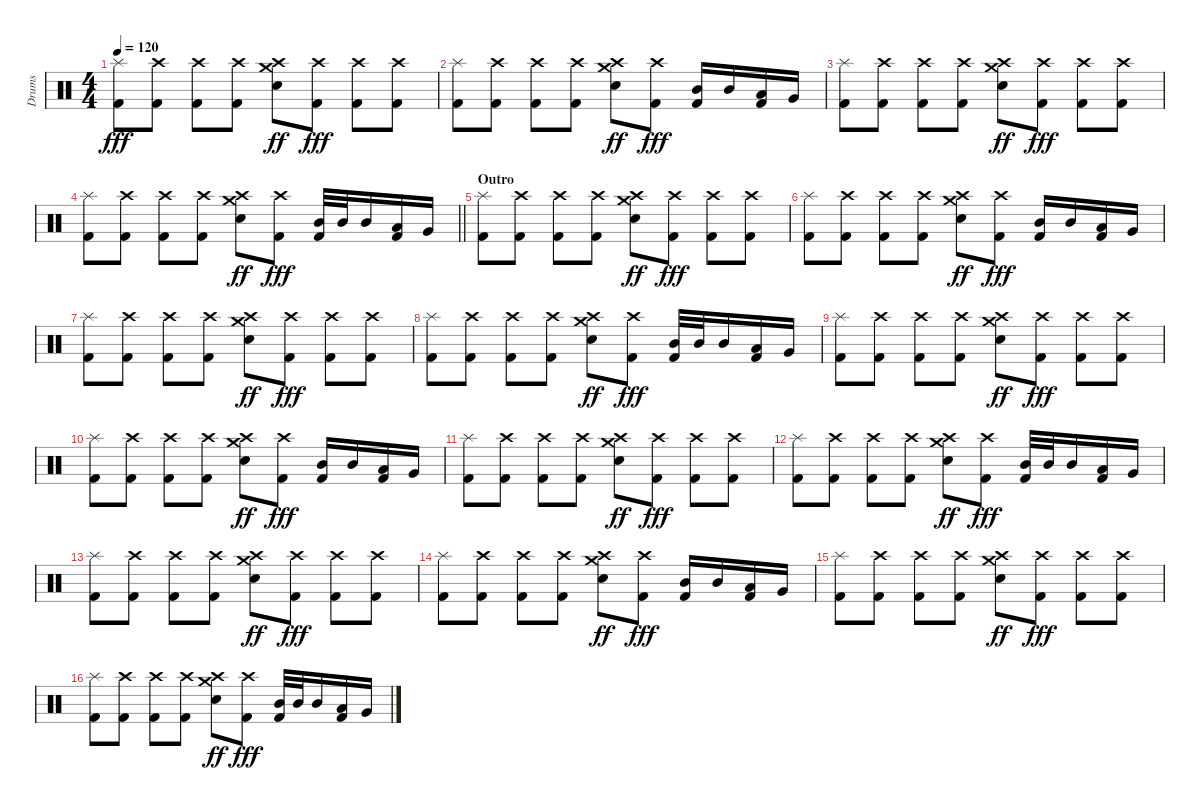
\track ("Drums" "Drums") {instrument percussion}
\staff {score}
\articulation defaults
\ts (4 4)
\tempo 120
\clef neutral
\ks c
("Kick (hit) 2" "Splash (hit)").8{dy fff} ("Kick (hit) 2" "Crash high (hit)").8 ("Kick (hit) 2" "Crash high (hit)").8 ("Kick (hit) 2" "Crash high (hit)").8 ("Snare (hit) 2" "Crash high (hit)" "Crash medium (hit)").8{dy ff} ("Kick (hit) 2" "Crash high (hit)").8{dy fff} ("Kick (hit) 2" "Crash high (hit)").8 ("Kick (hit) 2" "Crash high (hit)").8 |
("Kick (hit) 2" "Splash (hit)").8 ("Kick (hit) 2" "Crash high (hit)").8 ("Kick (hit) 2" "Crash high (hit)").8 ("Kick (hit) 2" "Crash high (hit)").8 ("Snare (hit) 2" "Crash high (hit)" "Crash medium (hit)").8{dy ff} ("Kick (hit) 2" "Crash high (hit)").8{dy fff} ("Kick (hit) 2" "Mid Tom (hit)").16 "Mid Tom (hit)".16 ("Kick (hit) 2" "Low Tom (hit)").16 "Very Low Tom (hit)".16 |
("Kick (hit) 2" "Splash (hit)").8 ("Kick (hit) 2" "Crash high (hit)").8 ("Kick (hit) 2" "Crash high (hit)").8 ("Kick (hit) 2" "Crash high (hit)").8 ("Snare (hit) 2" "Crash high (hit)" "Crash medium (hit)").8{dy ff} ("Kick (hit) 2" "Crash high (hit)").8{dy fff} ("Kick (hit) 2" "Crash high (hit)").8 ("Kick (hit) 2" "Crash high (hit)").8 |
\barLineRight lightlight
("Kick (hit) 2" "Splash (hit)").8 ("Kick (hit) 2" "Crash high (hit)").8 ("Kick (hit) 2" "Crash high (hit)").8 ("Kick (hit) 2" "Crash high (hit)").8 ("Snare (hit) 2" "Crash high (hit)" "Crash medium (hit)").8{dy ff} ("Kick (hit) 2" "Crash high (hit)").8{dy fff} ("Kick (hit) 2" "Mid Tom (hit)").32 "Mid Tom (hit)".32 "Mid Tom (hit)".16 ("Kick (hit) 2" "Low Tom (hit)").16 "Very Low Tom (hit)".16 |
\section ("" "Outro")
("Kick (hit) 2" "Splash (hit)").8 ("Kick (hit) 2" "Crash high (hit)").8 ("Kick (hit) 2" "Crash high (hit)").8 ("Kick (hit) 2" "Crash high (hit)").8 ("Snare (hit) 2" "Crash high (hit)" "Crash medium (hit)").8{dy ff} ("Kick (hit) 2" "Crash high (hit)").8{dy fff} ("Kick (hit) 2" "Crash high (hit)").8 ("Kick (hit) 2" "Crash high (hit)").8 |
("Kick (hit) 2" "Splash (hit)").8 ("Kick (hit) 2" "Crash high (hit)").8 ("Kick (hit) 2" "Crash high (hit)").8 ("Kick (hit) 2" "Crash high (hit)").8 ("Snare (hit) 2" "Crash high (hit)" "Crash medium (hit)").8{dy ff} ("Kick (hit) 2" "Crash high (hit)").8{dy fff} ("Kick (hit) 2" "Mid Tom (hit)").16 "Mid Tom (hit)".16 ("Kick (hit) 2" "Low Tom (hit)").16 "Very Low Tom (hit)".16 |
("Kick (hit) 2" "Splash (hit)").8 ("Kick (hit) 2" "Crash high (hit)").8 ("Kick (hit) 2" "Crash high (hit)").8 ("Kick (hit) 2" "Crash high (hit)").8 ("Snare (hit) 2" "Crash high (hit)" "Crash medium (hit)").8{dy ff} ("Kick (hit) 2" "Crash high (hit)").8{dy fff} ("Kick (hit) 2" "Crash high (hit)").8 ("Kick (hit) 2" "Crash high (hit)").8 |
("Kick (hit) 2" "Splash (hit)").8 ("Kick (hit) 2" "Crash high (hit)").8 ("Kick (hit) 2" "Crash high (hit)").8 ("Kick (hit) 2" "Crash high (hit)").8 ("Snare (hit) 2" "Crash high (hit)" "Crash medium (hit)").8{dy ff} ("Kick (hit) 2" "Crash high (hit)").8{dy fff} ("Kick (hit) 2" "Mid Tom (hit)").32 "Mid Tom (hit)".32 "Mid Tom (hit)".16 ("Kick (hit) 2" "Low Tom (hit)").16 "Very Low Tom (hit)".16 |
("Kick (hit) 2" "Splash (hit)").8 ("Kick (hit) 2" "Crash high (hit)").8 ("Kick (hit) 2" "Crash high (hit)").8 ("Kick (hit) 2" "Crash high (hit)").8 ("Snare (hit) 2" "Crash high (hit)" "Crash medium (hit)").8{dy ff} ("Kick (hit) 2" "Crash high (hit)").8{dy fff} ("Kick (hit) 2" "Crash high (hit)").8 ("Kick (hit) 2" "Crash high (hit)").8 |
("Kick (hit) 2" "Splash (hit)").8 ("Kick (hit) 2" "Crash high (hit)").8 ("Kick (hit) 2" "Crash high (hit)").8 ("Kick (hit) 2" "Crash high (hit)").8 ("Snare (hit) 2" "Crash high (hit)" "Crash medium (hit)").8{dy ff} ("Kick (hit) 2" "Crash high (hit)").8{dy fff} ("Kick (hit) 2" "Mid Tom (hit)").16 "Mid Tom (hit)".16 ("Kick (hit) 2" "Low Tom (hit)").16 "Very Low Tom (hit)".16 |
("Kick (hit) 2" "Splash (hit)").8 ("Kick (hit) 2" "Crash high (hit)").8 ("Kick (hit) 2" "Crash high (hit)").8 ("Kick (hit) 2" "Crash high (hit)").8 ("Snare (hit) 2" "Crash high (hit)" "Crash medium (hit)").8{dy ff} ("Kick (hit) 2" "Crash high (hit)").8{dy fff} ("Kick (hit) 2" "Crash high (hit)").8 ("Kick (hit) 2" "Crash high (hit)").8 |
("Kick (hit) 2" "Splash (hit)").8 ("Kick (hit) 2" "Crash high (hit)").8 ("Kick (hit) 2" "Crash high (hit)").8 ("Kick (hit) 2" "Crash high (hit)").8 ("Snare (hit) 2" "Crash high (hit)" "Crash medium (hit)").8{dy ff} ("Kick (hit) 2" "Crash high (hit)").8{dy fff} ("Kick (hit) 2" "Mid Tom (hit)").32 "Mid Tom (hit)".32 "Mid Tom (hit)".16 ("Kick (hit) 2" "Low Tom (hit)").16 "Very Low Tom (hit)".16 |
("Kick (hit) 2" "Splash (hit)").8 ("Kick (hit) 2" "Crash high (hit)").8 ("Kick (hit) 2" "Crash high (hit)").8 ("Kick (hit) 2" "Crash high (hit)").8 ("Snare (hit) 2" "Crash high (hit)" "Crash medium (hit)").8{dy ff} ("Kick (hit) 2" "Crash high (hit)").8{dy fff} ("Kick (hit) 2" "Crash high (hit)").8 ("Kick (hit) 2" "Crash high (hit)").8 |
("Kick (hit) 2" "Splash (hit)").8 ("Kick (hit) 2" "Crash high (hit)").8 ("Kick (hit) 2" "Crash high (hit)").8 ("Kick (hit) 2" "Crash high (hit)").8 ("Snare (hit) 2" "Crash high (hit)" "Crash medium (hit)").8{dy ff} ("Kick (hit) 2" "Crash high (hit)").8{dy fff} ("Kick (hit) 2" "Mid Tom (hit)").16 "Mid Tom (hit)".16 ("Kick (hit) 2" "Low Tom (hit)").16 "Very Low Tom (hit)".16 |
("Kick (hit) 2" "Splash (hit)").8 ("Kick (hit) 2" "Crash high (hit)").8 ("Kick (hit) 2" "Crash high (hit)").8 ("Kick (hit) 2" "Crash high (hit)").8 ("Snare (hit) 2" "Crash high (hit)" "Crash medium (hit)").8{dy ff} ("Kick (hit) 2" "Crash high (hit)").8{dy fff} ("Kick (hit) 2" "Crash high (hit)").8 ("Kick (hit) 2" "Crash high (hit)").8 |
("Kick (hit) 2" "Splash (hit)").8 ("Kick (hit) 2" "Crash high (hit)").8 ("Kick (hit) 2" "Crash high (hit)").8 ("Kick (hit) 2" "Crash high (hit)").8 ("Snare (hit) 2" "Crash high (hit)" "Crash medium (hit)").8{dy ff} ("Kick (hit) 2" "Crash high (hit)").8{dy fff} ("Kick (hit) 2" "Mid Tom (hit)").32 "Mid Tom (hit)".32 "Mid Tom (hit)".16 ("Kick (hit) 2" "Low Tom (hit)").16 "Very Low Tom (hit)".16
